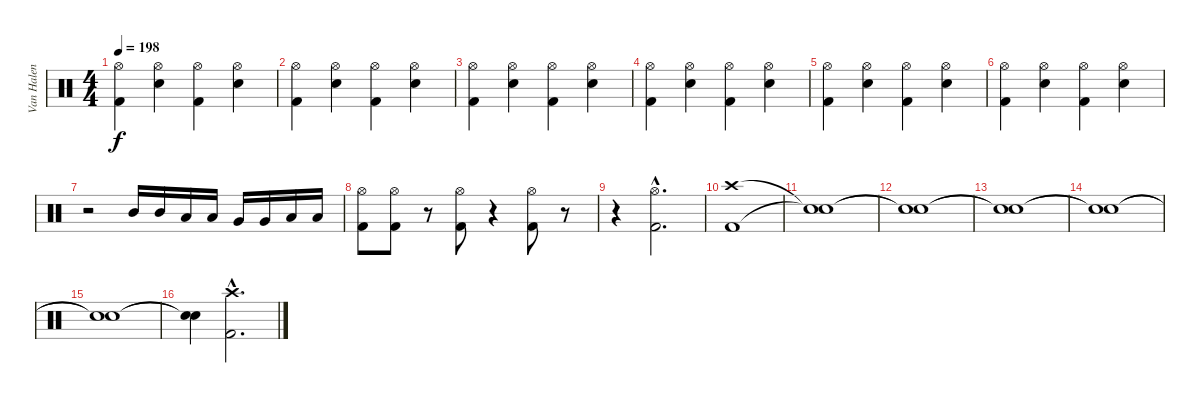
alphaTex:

\track ("Van Halen" "Van Halen") {instrument percussion}
\staff {score}
\articulation defaults
\ts (4 4)
\tempo 198
\clef neutral
\ks c
("Kick (hit) 2" "Hi-Hat (open)").4{dy f} ("Snare (hit) 2" "Hi-Hat (open)").4 ("Kick (hit) 2" "Hi-Hat (open)").4 ("Snare (hit) 2" "Hi-Hat (open)").4 |
("Kick (hit) 2" "Hi-Hat (open)").4 ("Snare (hit) 2" "Hi-Hat (open)").4 ("Kick (hit) 2" "Hi-Hat (open)").4 ("Snare (hit) 2" "Hi-Hat (open)").4 |
("Kick (hit) 2" "Hi-Hat (open)").4 ("Snare (hit) 2" "Hi-Hat (open)").4 ("Kick (hit) 2" "Hi-Hat (open)").4 ("Snare (hit) 2" "Hi-Hat (open)").4 |
("Kick (hit) 2" "Hi-Hat (open)").4 ("Snare (hit) 2" "Hi-Hat (open)").4 ("Kick (hit) 2" "Hi-Hat (open)").4 ("Snare (hit) 2" "Hi-Hat (open)").4 |
("Kick (hit) 2" "Hi-Hat (open)").4 ("Snare (hit) 2" "Hi-Hat (open)").4 ("Kick (hit) 2" "Hi-Hat (open)").4 ("Snare (hit) 2" "Hi-Hat (open)").4 |
("Kick (hit) 2" "Hi-Hat (open)").4 ("Snare (hit) 2" "Hi-Hat (open)").4 ("Kick (hit) 2" "Hi-Hat (open)").4 ("Snare (hit) 2" "Hi-Hat (open)").4 |
r.2 "Mid Tom (hit)".16 "Mid Tom (hit)".16 "Low Tom (hit)".16 "Low Tom (hit)".16 "Very Low Tom (hit)".16 "Very Low Tom (hit)".16 "Low Floor Tom (hit)".16 "Low Floor Tom (hit)".16 |
("Kick (hit) 2" "Hi-Hat (open)").8 ("Kick (hit) 2" "Hi-Hat (open)").8 r.8 ("Kick (hit) 2" "Hi-Hat (open)").8 r.4 ("Kick (hit) 2" "Hi-Hat (open)").8 r.8 |
r.4 ("Kick (hit) 2"{hac} "Hi-Hat (open)"{hac}).2{d} |
("Kick (hit) 2" "Crash high (hit)").1 |
("Snare (hit)"{t} "Snare (hit)"{t}).1 |
("Snare (hit)"{t} "Snare (hit)"{t}).1 |
("Snare (hit)"{t} "Snare (hit)"{t}).1 |
("Snare (hit)"{t} "Snare (hit)"{t}).1 |
("Snare (hit)"{t} "Snare (hit)"{t}).1 |
("Snare (hit)"{t} "Snare (hit)"{t}).4 ("Kick (hit) 2"{hac} "Crash high (hit)"{hac}).2{d}
